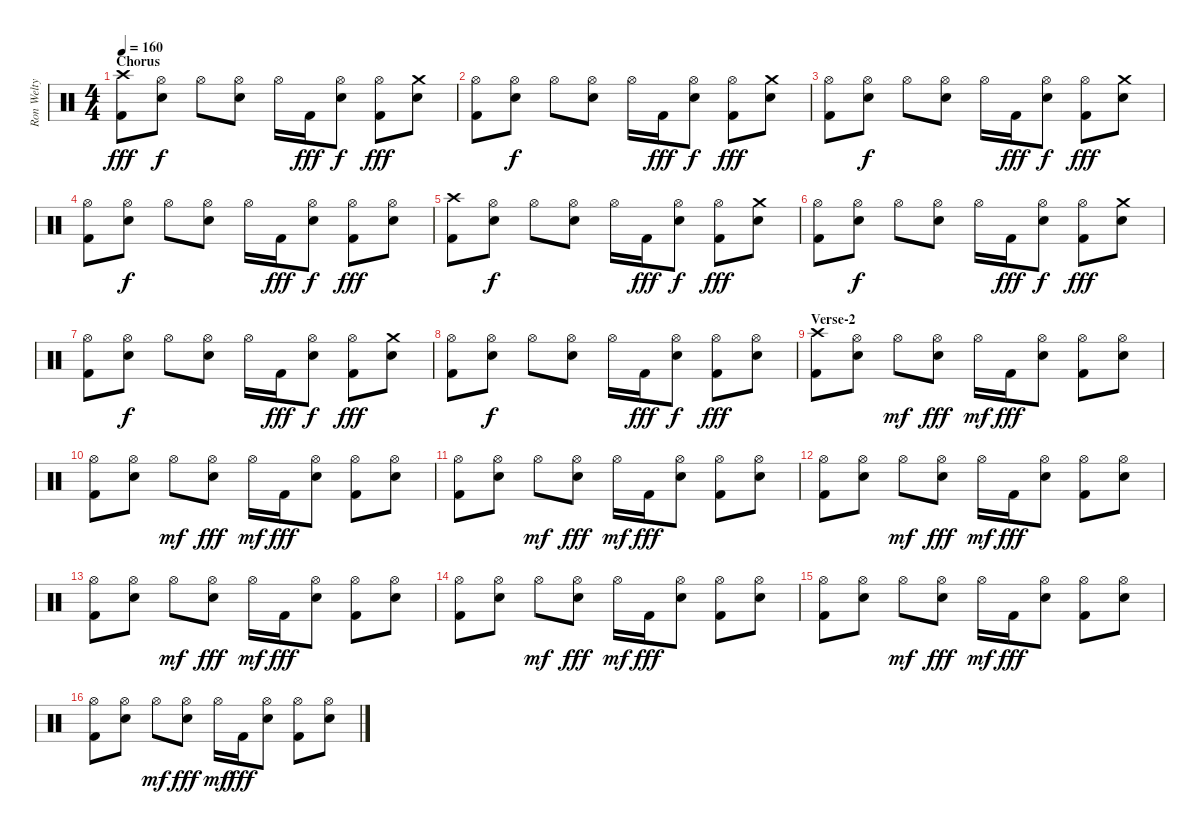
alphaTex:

\track ("Ron Welty" "Ron Welty") {instrument percussion}
\staff {score}
\articulation defaults
\ts (4 4)
\section ("" "Chorus")
\tempo 160
\clef neutral
\ks c
("Crash high (hit)" "Kick (hit) 2").8{dy fff} ("Hi-Hat (open)" "Snare (hit) 2").8{dy f} "Hi-Hat (open)".8 ("Hi-Hat (open)" "Snare (hit) 2").8 "Hi-Hat (open)".16 "Kick (hit) 2".16{dy fff} ("Hi-Hat (open)" "Snare (hit) 2").8{dy f} ("Hi-Hat (open)" "Kick (hit) 2").8{dy fff} ("Crash medium (hit)" "Snare (hit) 2").8 |
("Hi-Hat (open)" "Kick (hit) 2").8 ("Hi-Hat (open)" "Snare (hit) 2").8{dy f} "Hi-Hat (open)".8 ("Hi-Hat (open)" "Snare (hit) 2").8 "Hi-Hat (open)".16 "Kick (hit) 2".16{dy fff} ("Hi-Hat (open)" "Snare (hit) 2").8{dy f} ("Hi-Hat (open)" "Kick (hit) 2").8{dy fff} ("Crash medium (hit)" "Snare (hit) 2").8 |
("Hi-Hat (open)" "Kick (hit) 2").8 ("Hi-Hat (open)" "Snare (hit) 2").8{dy f} "Hi-Hat (open)".8 ("Hi-Hat (open)" "Snare (hit) 2").8 "Hi-Hat (open)".16 "Kick (hit) 2".16{dy fff} ("Hi-Hat (open)" "Snare (hit) 2").8{dy f} ("Hi-Hat (open)" "Kick (hit) 2").8{dy fff} ("Crash medium (hit)" "Snare (hit) 2").8 |
("Hi-Hat (open)" "Kick (hit) 2").8 ("Hi-Hat (open)" "Snare (hit) 2").8{dy f} "Hi-Hat (open)".8 ("Hi-Hat (open)" "Snare (hit) 2").8 "Hi-Hat (open)".16 "Kick (hit) 2".16{dy fff} ("Hi-Hat (open)" "Snare (hit) 2").8{dy f} ("Hi-Hat (open)" "Kick (hit) 2").8{dy fff} ("Hi-Hat (open)" "Snare (hit) 2").8 |
("Crash high (hit)" "Kick (hit) 2").8 ("Hi-Hat (open)" "Snare (hit) 2").8{dy f} "Hi-Hat (open)".8 ("Hi-Hat (open)" "Snare (hit) 2").8 "Hi-Hat (open)".16 "Kick (hit) 2".16{dy fff} ("Hi-Hat (open)" "Snare (hit) 2").8{dy f} ("Hi-Hat (open)" "Kick (hit) 2").8{dy fff} ("Crash medium (hit)" "Snare (hit) 2").8 |
("Hi-Hat (open)" "Kick (hit) 2").8 ("Hi-Hat (open)" "Snare (hit) 2").8{dy f} "Hi-Hat (open)".8 ("Hi-Hat (open)" "Snare (hit) 2").8 "Hi-Hat (open)".16 "Kick (hit) 2".16{dy fff} ("Hi-Hat (open)" "Snare (hit) 2").8{dy f} ("Hi-Hat (open)" "Kick (hit) 2").8{dy fff} ("Crash medium (hit)" "Snare (hit) 2").8 |
("Hi-Hat (open)" "Kick (hit) 2").8 ("Hi-Hat (open)" "Snare (hit) 2").8{dy f} "Hi-Hat (open)".8 ("Hi-Hat (open)" "Snare (hit) 2").8 "Hi-Hat (open)".16 "Kick (hit) 2".16{dy fff} ("Hi-Hat (open)" "Snare (hit) 2").8{dy f} ("Hi-Hat (open)" "Kick (hit) 2").8{dy fff} ("Crash medium (hit)" "Snare (hit) 2").8 |
("Hi-Hat (open)" "Kick (hit) 2").8 ("Hi-Hat (open)" "Snare (hit) 2").8{dy f} "Hi-Hat (open)".8 ("Hi-Hat (open)" "Snare (hit) 2").8 "Hi-Hat (open)".16 "Kick (hit) 2".16{dy fff} ("Hi-Hat (open)" "Snare (hit) 2").8{dy f} ("Hi-Hat (open)" "Kick (hit) 2").8{dy fff} ("Hi-Hat (open)" "Snare (hit) 2").8 |
\section ("" "Verse-2")
("Crash high (hit)" "Kick (hit) 2").8 ("Hi-Hat (open)" "Snare (hit) 2").8 "Hi-Hat (open)".8{dy mf} ("Hi-Hat (open)" "Snare (hit) 2").8{dy fff} "Hi-Hat (open)".16{dy mf} "Kick (hit) 2".16{dy fff} ("Hi-Hat (open)" "Snare (hit) 2").8 ("Hi-Hat (open)" "Kick (hit) 2").8 ("Hi-Hat (open)" "Snare (hit) 2").8 |
("Hi-Hat (open)" "Kick (hit) 2").8 ("Hi-Hat (open)" "Snare (hit) 2").8 "Hi-Hat (open)".8{dy mf} ("Hi-Hat (open)" "Snare (hit) 2").8{dy fff} "Hi-Hat (open)".16{dy mf} "Kick (hit) 2".16{dy fff} ("Hi-Hat (open)" "Snare (hit) 2").8 ("Hi-Hat (open)" "Kick (hit) 2").8 ("Hi-Hat (open)" "Snare (hit) 2").8 |
("Hi-Hat (open)" "Kick (hit) 2").8 ("Hi-Hat (open)" "Snare (hit) 2").8 "Hi-Hat (open)".8{dy mf} ("Hi-Hat (open)" "Snare (hit) 2").8{dy fff} "Hi-Hat (open)".16{dy mf} "Kick (hit) 2".16{dy fff} ("Hi-Hat (open)" "Snare (hit) 2").8 ("Hi-Hat (open)" "Kick (hit) 2").8 ("Hi-Hat (open)" "Snare (hit) 2").8 |
("Hi-Hat (open)" "Kick (hit) 2").8 ("Hi-Hat (open)" "Snare (hit) 2").8 "Hi-Hat (open)".8{dy mf} ("Hi-Hat (open)" "Snare (hit) 2").8{dy fff} "Hi-Hat (open)".16{dy mf} "Kick (hit) 2".16{dy fff} ("Hi-Hat (open)" "Snare (hit) 2").8 ("Hi-Hat (open)" "Kick (hit) 2").8 ("Hi-Hat (open)" "Snare (hit) 2").8 |
("Hi-Hat (open)" "Kick (hit) 2").8 ("Hi-Hat (open)" "Snare (hit) 2").8 "Hi-Hat (open)".8{dy mf} ("Hi-Hat (open)" "Snare (hit) 2").8{dy fff} "Hi-Hat (open)".16{dy mf} "Kick (hit) 2".16{dy fff} ("Hi-Hat (open)" "Snare (hit) 2").8 ("Hi-Hat (open)" "Kick (hit) 2").8 ("Hi-Hat (open)" "Snare (hit) 2").8 |
("Hi-Hat (open)" "Kick (hit) 2").8 ("Hi-Hat (open)" "Snare (hit) 2").8 "Hi-Hat (open)".8{dy mf} ("Hi-Hat (open)" "Snare (hit) 2").8{dy fff} "Hi-Hat (open)".16{dy mf} "Kick (hit) 2".16{dy fff} ("Hi-Hat (open)" "Snare (hit) 2").8 ("Hi-Hat (open)" "Kick (hit) 2").8 ("Hi-Hat (open)" "Snare (hit) 2").8 |
("Hi-Hat (open)" "Kick (hit) 2").8 ("Hi-Hat (open)" "Snare (hit) 2").8 "Hi-Hat (open)".8{dy mf} ("Hi-Hat (open)" "Snare (hit) 2").8{dy fff} "Hi-Hat (open)".16{dy mf} "Kick (hit) 2".16{dy fff} ("Hi-Hat (open)" "Snare (hit) 2").8 ("Hi-Hat (open)" "Kick (hit) 2").8 ("Hi-Hat (open)" "Snare (hit) 2").8 |
("Hi-Hat (open)" "Kick (hit) 2").8 ("Hi-Hat (open)" "Snare (hit) 2").8 "Hi-Hat (open)".8{dy mf} ("Hi-Hat (open)" "Snare (hit) 2").8{dy fff} "Hi-Hat (open)".16{dy mf} "Kick (hit) 2".16{dy fff} ("Hi-Hat (open)" "Snare (hit) 2").8 ("Hi-Hat (open)" "Kick (hit) 2").8 ("Hi-Hat (open)" "Snare (hit) 2").8
